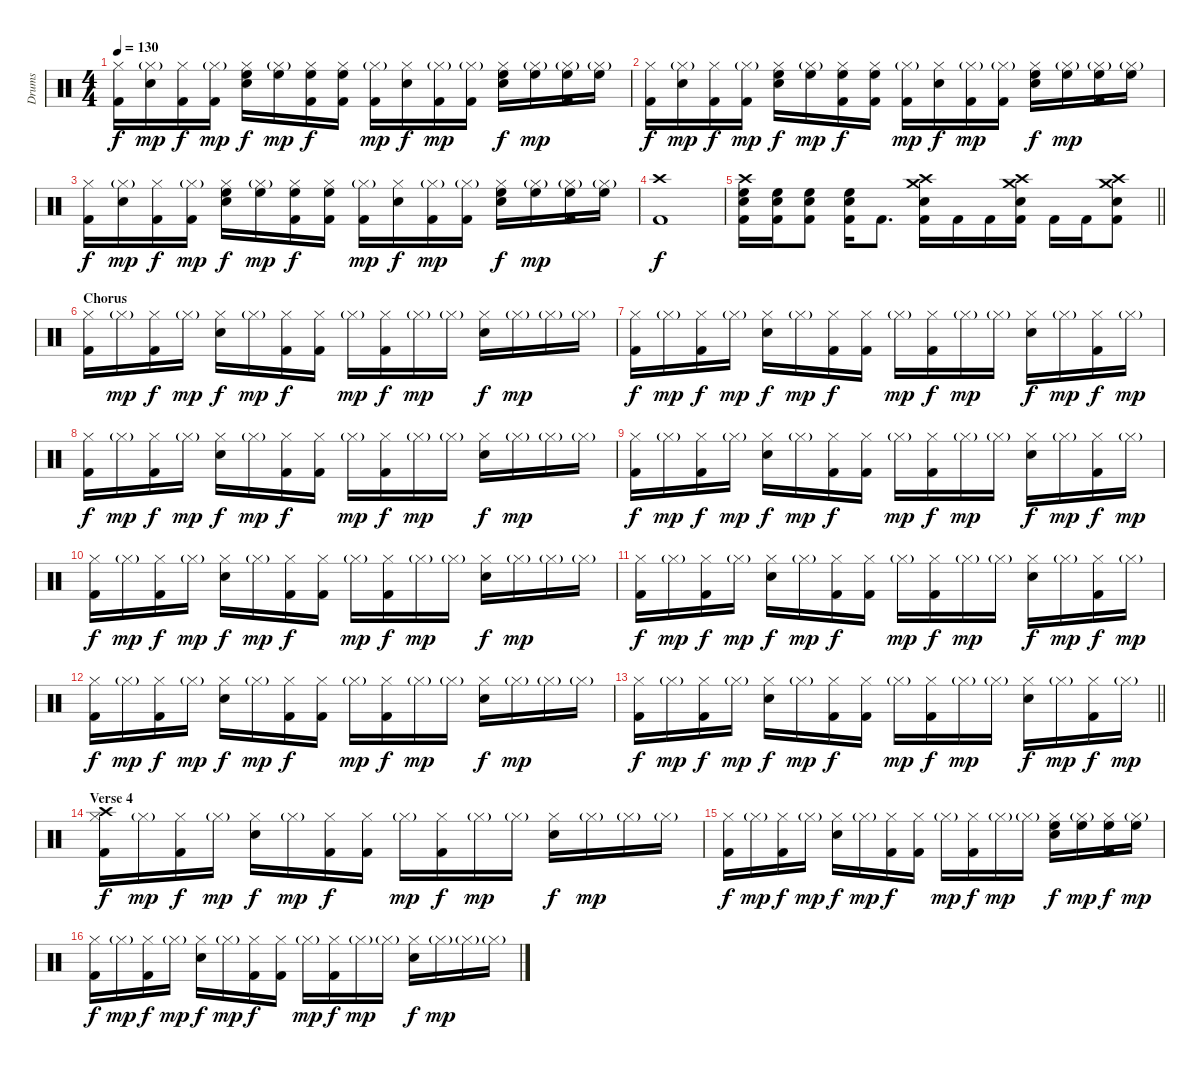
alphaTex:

\track ("Drums" "Drums") {instrument percussion}
\staff {score}
\articulation defaults
\ts (4 4)
\tempo 130
\clef neutral
\ks c
("Hi-Hat (closed)" "Kick (hit) 2").16{dy f} ("Hi-Hat (closed)"{g} "Snare (hit) 2").16{dy mp} ("Hi-Hat (closed)" "Kick (hit) 2").16{dy f} ("Hi-Hat (closed)"{g} "Kick (hit) 2").16{dy mp} ("Hi-Hat (closed)" "Snare (hit) 2" "High Floor Tom (hit)").16{dy f} ("Hi-Hat (closed)"{g} "High Floor Tom (hit)").16{dy mp} ("Hi-Hat (closed)" "Kick (hit) 2" "High Floor Tom (hit)").16{dy f} ("Hi-Hat (closed)" "Kick (hit) 2" "High Floor Tom (hit)").16 ("Hi-Hat (closed)"{g} "Kick (hit) 2").16{dy mp} ("Hi-Hat (closed)" "Snare (hit) 2").16{dy f} ("Hi-Hat (closed)"{g} "Kick (hit) 2").16{dy mp} ("Hi-Hat (closed)"{g} "Kick (hit) 2").16 ("Hi-Hat (closed)" "Snare (hit) 2" "High Floor Tom (hit)").16{dy f} ("Hi-Hat (closed)"{g} "High Floor Tom (hit)").16{dy mp} ("Hi-Hat (closed)"{g} "Kick (hit) 2" "High Floor Tom (hit)").16 ("Hi-Hat (closed)"{g} "High Floor Tom (hit)").16 |
("Hi-Hat (closed)" "Kick (hit) 2").16{dy f} ("Hi-Hat (closed)"{g} "Snare (hit) 2").16{dy mp} ("Hi-Hat (closed)" "Kick (hit) 2").16{dy f} ("Hi-Hat (closed)"{g} "Kick (hit) 2").16{dy mp} ("Hi-Hat (closed)" "Snare (hit) 2" "High Floor Tom (hit)").16{dy f} ("Hi-Hat (closed)"{g} "High Floor Tom (hit)").16{dy mp} ("Hi-Hat (closed)" "Kick (hit) 2" "High Floor Tom (hit)").16{dy f} ("Hi-Hat (closed)" "Kick (hit) 2" "High Floor Tom (hit)").16 ("Hi-Hat (closed)"{g} "Kick (hit) 2").16{dy mp} ("Hi-Hat (closed)" "Snare (hit) 2").16{dy f} ("Hi-Hat (closed)"{g} "Kick (hit) 2").16{dy mp} ("Hi-Hat (closed)"{g} "Kick (hit) 2").16 ("Hi-Hat (closed)" "Snare (hit) 2" "High Floor Tom (hit)").16{dy f} ("Hi-Hat (closed)"{g} "High Floor Tom (hit)").16{dy mp} ("Hi-Hat (closed)"{g} "Kick (hit) 2" "High Floor Tom (hit)").16 ("Hi-Hat (closed)"{g} "High Floor Tom (hit)").16 |
("Hi-Hat (closed)" "Kick (hit) 2").16{dy f} ("Hi-Hat (closed)"{g} "Snare (hit) 2").16{dy mp} ("Hi-Hat (closed)" "Kick (hit) 2").16{dy f} ("Hi-Hat (closed)"{g} "Kick (hit) 2").16{dy mp} ("Hi-Hat (closed)" "Snare (hit) 2" "High Floor Tom (hit)").16{dy f} ("Hi-Hat (closed)"{g} "High Floor Tom (hit)").16{dy mp} ("Hi-Hat (closed)" "Kick (hit) 2" "High Floor Tom (hit)").16{dy f} ("Hi-Hat (closed)" "Kick (hit) 2" "High Floor Tom (hit)").16 ("Hi-Hat (closed)"{g} "Kick (hit) 2").16{dy mp} ("Hi-Hat (closed)" "Snare (hit) 2").16{dy f} ("Hi-Hat (closed)"{g} "Kick (hit) 2").16{dy mp} ("Hi-Hat (closed)"{g} "Kick (hit) 2").16 ("Hi-Hat (closed)" "Snare (hit) 2" "High Floor Tom (hit)").16{dy f} ("Hi-Hat (closed)"{g} "High Floor Tom (hit)").16{dy mp} ("Hi-Hat (closed)"{g} "Kick (hit) 2" "High Floor Tom (hit)").16 ("Hi-Hat (closed)"{g} "High Floor Tom (hit)").16 |
("Kick (hit) 2" "Crash high (hit)").1{dy f} |
\barLineRight lightlight
("Kick (hit) 2" "Snare (hit) 2" "High Floor Tom (hit)" "Crash high (hit)").16 ("Kick (hit) 2" "Snare (hit) 2" "High Floor Tom (hit)").16 ("Kick (hit) 2" "Snare (hit) 2" "High Floor Tom (hit)").8 ("Kick (hit) 2" "Snare (hit) 2" "High Floor Tom (hit)").16 "Kick (hit) 2".8{d} ("Kick (hit) 2" "Snare (hit) 2" "Crash medium (hit)" "Crash high (hit)").16 "Kick (hit) 2".16 "Kick (hit) 2".16 ("Kick (hit) 2" "Snare (hit) 2" "Crash medium (hit)" "Crash high (hit)").16 "Kick (hit) 2".16 "Kick (hit) 2".16 ("Kick (hit) 2" "Snare (hit) 2" "Crash medium (hit)" "Crash high (hit)").8 |
\section ("" "Chorus")
("Hi-Hat (closed)" "Kick (hit) 2").16 "Hi-Hat (closed)"{g}.16{dy mp} ("Hi-Hat (closed)" "Kick (hit) 2").16{dy f} "Hi-Hat (closed)"{g}.16{dy mp} ("Hi-Hat (closed)" "Snare (hit) 2").16{dy f} "Hi-Hat (closed)"{g}.16{dy mp} ("Hi-Hat (closed)" "Kick (hit) 2").16{dy f} ("Hi-Hat (closed)" "Kick (hit) 2").16 "Hi-Hat (closed)"{g}.16{dy mp} ("Hi-Hat (closed)" "Kick (hit) 2").16{dy f} "Hi-Hat (closed)"{g}.16{dy mp} "Hi-Hat (closed)"{g}.16 ("Hi-Hat (closed)" "Snare (hit) 2").16{dy f} "Hi-Hat (closed)"{g}.16{dy mp} "Hi-Hat (closed)"{g}.16 "Hi-Hat (closed)"{g}.16 |
("Hi-Hat (closed)" "Kick (hit) 2").16{dy f} "Hi-Hat (closed)"{g}.16{dy mp} ("Hi-Hat (closed)" "Kick (hit) 2").16{dy f} "Hi-Hat (closed)"{g}.16{dy mp} ("Hi-Hat (closed)" "Snare (hit) 2").16{dy f} "Hi-Hat (closed)"{g}.16{dy mp} ("Hi-Hat (closed)" "Kick (hit) 2").16{dy f} ("Hi-Hat (closed)" "Kick (hit) 2").16 "Hi-Hat (closed)"{g}.16{dy mp} ("Hi-Hat (closed)" "Kick (hit) 2").16{dy f} "Hi-Hat (closed)"{g}.16{dy mp} "Hi-Hat (closed)"{g}.16 ("Hi-Hat (closed)" "Snare (hit) 2").16{dy f} "Hi-Hat (closed)"{g}.16{dy mp} ("Hi-Hat (closed)" "Kick (hit) 2").16{dy f} "Hi-Hat (closed)"{g}.16{dy mp} |
("Hi-Hat (closed)" "Kick (hit) 2").16{dy f} "Hi-Hat (closed)"{g}.16{dy mp} ("Hi-Hat (closed)" "Kick (hit) 2").16{dy f} "Hi-Hat (closed)"{g}.16{dy mp} ("Hi-Hat (closed)" "Snare (hit) 2").16{dy f} "Hi-Hat (closed)"{g}.16{dy mp} ("Hi-Hat (closed)" "Kick (hit) 2").16{dy f} ("Hi-Hat (closed)" "Kick (hit) 2").16 "Hi-Hat (closed)"{g}.16{dy mp} ("Hi-Hat (closed)" "Kick (hit) 2").16{dy f} "Hi-Hat (closed)"{g}.16{dy mp} "Hi-Hat (closed)"{g}.16 ("Hi-Hat (closed)" "Snare (hit) 2").16{dy f} "Hi-Hat (closed)"{g}.16{dy mp} "Hi-Hat (closed)"{g}.16 "Hi-Hat (closed)"{g}.16 |
("Hi-Hat (closed)" "Kick (hit) 2").16{dy f} "Hi-Hat (closed)"{g}.16{dy mp} ("Hi-Hat (closed)" "Kick (hit) 2").16{dy f} "Hi-Hat (closed)"{g}.16{dy mp} ("Hi-Hat (closed)" "Snare (hit) 2").16{dy f} "Hi-Hat (closed)"{g}.16{dy mp} ("Hi-Hat (closed)" "Kick (hit) 2").16{dy f} ("Hi-Hat (closed)" "Kick (hit) 2").16 "Hi-Hat (closed)"{g}.16{dy mp} ("Hi-Hat (closed)" "Kick (hit) 2").16{dy f} "Hi-Hat (closed)"{g}.16{dy mp} "Hi-Hat (closed)"{g}.16 ("Hi-Hat (closed)" "Snare (hit) 2").16{dy f} "Hi-Hat (closed)"{g}.16{dy mp} ("Hi-Hat (closed)" "Kick (hit) 2").16{dy f} "Hi-Hat (closed)"{g}.16{dy mp} |
("Hi-Hat (closed)" "Kick (hit) 2").16{dy f} "Hi-Hat (closed)"{g}.16{dy mp} ("Hi-Hat (closed)" "Kick (hit) 2").16{dy f} "Hi-Hat (closed)"{g}.16{dy mp} ("Hi-Hat (closed)" "Snare (hit) 2").16{dy f} "Hi-Hat (closed)"{g}.16{dy mp} ("Hi-Hat (closed)" "Kick (hit) 2").16{dy f} ("Hi-Hat (closed)" "Kick (hit) 2").16 "Hi-Hat (closed)"{g}.16{dy mp} ("Hi-Hat (closed)" "Kick (hit) 2").16{dy f} "Hi-Hat (closed)"{g}.16{dy mp} "Hi-Hat (closed)"{g}.16 ("Hi-Hat (closed)" "Snare (hit) 2").16{dy f} "Hi-Hat (closed)"{g}.16{dy mp} "Hi-Hat (closed)"{g}.16 "Hi-Hat (closed)"{g}.16 |
("Hi-Hat (closed)" "Kick (hit) 2").16{dy f} "Hi-Hat (closed)"{g}.16{dy mp} ("Hi-Hat (closed)" "Kick (hit) 2").16{dy f} "Hi-Hat (closed)"{g}.16{dy mp} ("Hi-Hat (closed)" "Snare (hit) 2").16{dy f} "Hi-Hat (closed)"{g}.16{dy mp} ("Hi-Hat (closed)" "Kick (hit) 2").16{dy f} ("Hi-Hat (closed)" "Kick (hit) 2").16 "Hi-Hat (closed)"{g}.16{dy mp} ("Hi-Hat (closed)" "Kick (hit) 2").16{dy f} "Hi-Hat (closed)"{g}.16{dy mp} "Hi-Hat (closed)"{g}.16 ("Hi-Hat (closed)" "Snare (hit) 2").16{dy f} "Hi-Hat (closed)"{g}.16{dy mp} ("Hi-Hat (closed)" "Kick (hit) 2").16{dy f} "Hi-Hat (closed)"{g}.16{dy mp} |
("Hi-Hat (closed)" "Kick (hit) 2").16{dy f} "Hi-Hat (closed)"{g}.16{dy mp} ("Hi-Hat (closed)" "Kick (hit) 2").16{dy f} "Hi-Hat (closed)"{g}.16{dy mp} ("Hi-Hat (closed)" "Snare (hit) 2").16{dy f} "Hi-Hat (closed)"{g}.16{dy mp} ("Hi-Hat (closed)" "Kick (hit) 2").16{dy f} ("Hi-Hat (closed)" "Kick (hit) 2").16 "Hi-Hat (closed)"{g}.16{dy mp} ("Hi-Hat (closed)" "Kick (hit) 2").16{dy f} "Hi-Hat (closed)"{g}.16{dy mp} "Hi-Hat (closed)"{g}.16 ("Hi-Hat (closed)" "Snare (hit) 2").16{dy f} "Hi-Hat (closed)"{g}.16{dy mp} "Hi-Hat (closed)"{g}.16 "Hi-Hat (closed)"{g}.16 |
\barLineRight lightlight
("Hi-Hat (closed)" "Kick (hit) 2").16{dy f} "Hi-Hat (closed)"{g}.16{dy mp} ("Hi-Hat (closed)" "Kick (hit) 2").16{dy f} "Hi-Hat (closed)"{g}.16{dy mp} ("Hi-Hat (closed)" "Snare (hit) 2").16{dy f} "Hi-Hat (closed)"{g}.16{dy mp} ("Hi-Hat (closed)" "Kick (hit) 2").16{dy f} ("Hi-Hat (closed)" "Kick (hit) 2").16 "Hi-Hat (closed)"{g}.16{dy mp} ("Hi-Hat (closed)" "Kick (hit) 2").16{dy f} "Hi-Hat (closed)"{g}.16{dy mp} "Hi-Hat (closed)"{g}.16 ("Hi-Hat (closed)" "Snare (hit) 2").16{dy f} "Hi-Hat (closed)"{g}.16{dy mp} ("Hi-Hat (closed)" "Kick (hit) 2").16{dy f} "Hi-Hat (closed)"{g}.16{dy mp} |
\section ("" "Verse 4")
("Hi-Hat (closed)" "Kick (hit) 2" "Crash high (hit)").16{dy f} "Hi-Hat (closed)"{g}.16{dy mp} ("Hi-Hat (closed)" "Kick (hit) 2").16{dy f} "Hi-Hat (closed)"{g}.16{dy mp} ("Hi-Hat (closed)" "Snare (hit) 2").16{dy f} "Hi-Hat (closed)"{g}.16{dy mp} ("Hi-Hat (closed)" "Kick (hit) 2").16{dy f} ("Hi-Hat (closed)" "Kick (hit) 2").16 "Hi-Hat (closed)"{g}.16{dy mp} ("Hi-Hat (closed)" "Kick (hit) 2").16{dy f} "Hi-Hat (closed)"{g}.16{dy mp} "Hi-Hat (closed)"{g}.16 ("Hi-Hat (closed)" "Snare (hit) 2").16{dy f} "Hi-Hat (closed)"{g}.16{dy mp} "Hi-Hat (closed)"{g}.16 "Hi-Hat (closed)"{g}.16 |
("Hi-Hat (closed)" "Kick (hit) 2").16{dy f} "Hi-Hat (closed)"{g}.16{dy mp} ("Hi-Hat (closed)" "Kick (hit) 2").16{dy f} "Hi-Hat (closed)"{g}.16{dy mp} ("Hi-Hat (closed)" "Snare (hit) 2").16{dy f} "Hi-Hat (closed)"{g}.16{dy mp} ("Hi-Hat (closed)" "Kick (hit) 2").16{dy f} ("Hi-Hat (closed)" "Kick (hit) 2").16 "Hi-Hat (closed)"{g}.16{dy mp} ("Hi-Hat (closed)" "Kick (hit) 2").16{dy f} "Hi-Hat (closed)"{g}.16{dy mp} "Hi-Hat (closed)"{g}.16 ("Hi-Hat (closed)" "Snare (hit) 2" "High Floor Tom (hit)").16{dy f} ("Hi-Hat (closed)"{g} "High Floor Tom (hit)").16{dy mp} ("Hi-Hat (closed)" "Kick (hit) 2" "High Floor Tom (hit)").16{dy f} ("Hi-Hat (closed)"{g} "High Floor Tom (hit)").16{dy mp} |
("Hi-Hat (closed)" "Kick (hit) 2").16{dy f} "Hi-Hat (closed)"{g}.16{dy mp} ("Hi-Hat (closed)" "Kick (hit) 2").16{dy f} "Hi-Hat (closed)"{g}.16{dy mp} ("Hi-Hat (closed)" "Snare (hit) 2").16{dy f} "Hi-Hat (closed)"{g}.16{dy mp} ("Hi-Hat (closed)" "Kick (hit) 2").16{dy f} ("Hi-Hat (closed)" "Kick (hit) 2").16 "Hi-Hat (closed)"{g}.16{dy mp} ("Hi-Hat (closed)" "Kick (hit) 2").16{dy f} "Hi-Hat (closed)"{g}.16{dy mp} "Hi-Hat (closed)"{g}.16 ("Hi-Hat (closed)" "Snare (hit) 2").16{dy f} "Hi-Hat (closed)"{g}.16{dy mp} "Hi-Hat (closed)"{g}.16 "Hi-Hat (closed)"{g}.16
